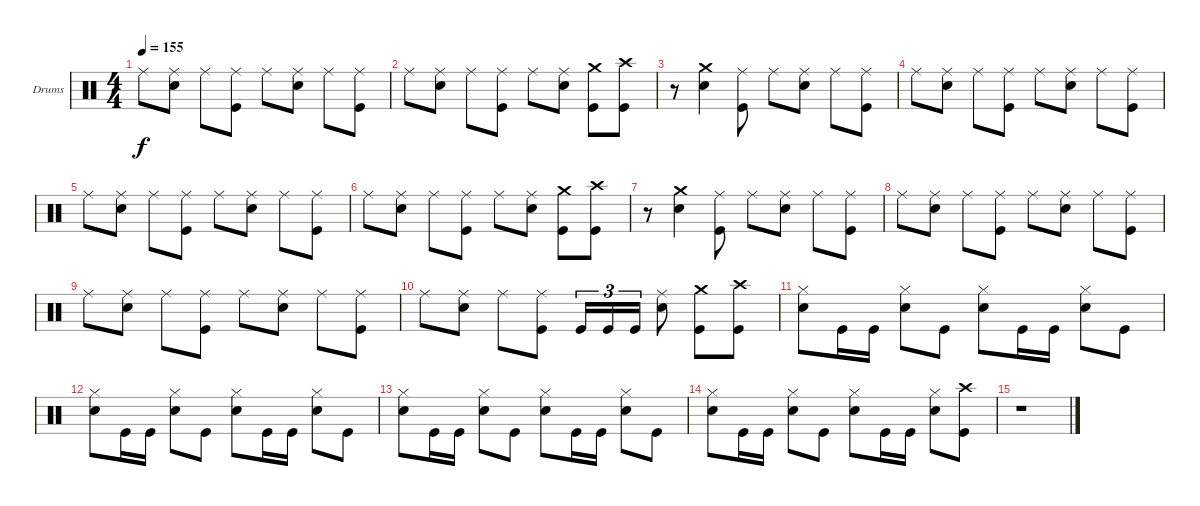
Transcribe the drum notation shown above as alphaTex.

\bracketExtendMode groupsimilarinstruments
\firstSystemTrackNameOrientation horizontal
\otherSystemsTrackNameOrientation horizontal
\track ("Drumkit" "Drums") {instrument percussion}
\staff {score}
\articulation defaults
\ts (4 4)
\tempo 155
\clef neutral
\ks c "Ride (middle)".8{dy f}
("Ride (middle)" "Snare (hit) 2").8 "Ride (middle)".8 ("Ride (middle)" "Kick (hit)").8 "Ride (middle)".8 ("Ride (middle)" "Snare (hit) 2").8 "Ride (middle)".8 ("Ride (middle)" "Kick (hit)").8 |
"Ride (middle)".8 ("Ride (middle)" "Snare (hit) 2").8 "Ride (middle)".8 ("Ride (middle)" "Kick (hit)").8 "Ride (middle)".8 ("Ride (middle)" "Snare (hit) 2").8 ("Crash medium (hit)" "Kick (hit)").8 ("Crash high (hit)" "Kick (hit)").8 |
r.8 ("Crash medium (hit)" "Snare (hit) 2").4 ("Ride (middle)" "Kick (hit)").8 "Ride (middle)".8 ("Ride (middle)" "Snare (hit) 2").8 "Ride (middle)".8 ("Ride (middle)" "Kick (hit)").8 |
"Ride (middle)".8 ("Ride (middle)" "Snare (hit) 2").8 "Ride (middle)".8 ("Ride (middle)" "Kick (hit)").8 "Ride (middle)".8 ("Ride (middle)" "Snare (hit) 2").8 "Ride (middle)".8 ("Ride (middle)" "Kick (hit)").8 |
"Ride (middle)".8 ("Ride (middle)" "Snare (hit) 2").8 "Ride (middle)".8 ("Ride (middle)" "Kick (hit)").8 "Ride (middle)".8 ("Ride (middle)" "Snare (hit) 2").8 "Ride (middle)".8 ("Ride (middle)" "Kick (hit)").8 |
"Ride (middle)".8 ("Ride (middle)" "Snare (hit) 2").8 "Ride (middle)".8 ("Ride (middle)" "Kick (hit)").8 "Ride (middle)".8 ("Ride (middle)" "Snare (hit) 2").8 ("Crash medium (hit)" "Kick (hit)").8 ("Crash high (hit)" "Kick (hit)").8 |
r.8 ("Crash medium (hit)" "Snare (hit) 2").4 ("Ride (middle)" "Kick (hit)").8 "Ride (middle)".8 ("Ride (middle)" "Snare (hit) 2").8 "Ride (middle)".8 ("Ride (middle)" "Kick (hit)").8 |
"Ride (middle)".8 ("Ride (middle)" "Snare (hit) 2").8 "Ride (middle)".8 ("Ride (middle)" "Kick (hit)").8 "Ride (middle)".8 ("Ride (middle)" "Snare (hit) 2").8 "Ride (middle)".8 ("Ride (middle)" "Kick (hit)").8 |
"Ride (middle)".8 ("Ride (middle)" "Snare (hit) 2").8 "Ride (middle)".8 ("Ride (middle)" "Kick (hit)").8 "Ride (middle)".8 ("Ride (middle)" "Snare (hit) 2").8 "Ride (middle)".8 ("Ride (middle)" "Kick (hit)").8 |
"Ride (middle)".8 ("Ride (middle)" "Snare (hit) 2").8 "Ride (middle)".8 ("Ride (middle)" "Kick (hit)").8 "Kick (hit)".16{tu (3 2)} "Kick (hit)".16{tu (3 2)} "Kick (hit)".16{tu (3 2)} ("Ride (middle)" "Snare (hit) 2").8 ("Crash medium (hit)" "Kick (hit)").8 ("Crash high (hit)" "Kick (hit)").8 |
("Hi-Hat (closed)" "Snare (hit) 2").8 "Kick (hit)".16 "Kick (hit)".16 ("Hi-Hat (closed)" "Snare (hit) 2").8 "Kick (hit)".8 ("Hi-Hat (closed)" "Snare (hit) 2").8 "Kick (hit)".16 "Kick (hit)".16 ("Hi-Hat (closed)" "Snare (hit) 2").8 "Kick (hit)".8 |
("Hi-Hat (closed)" "Snare (hit) 2").8 "Kick (hit)".16 "Kick (hit)".16 ("Hi-Hat (closed)" "Snare (hit) 2").8 "Kick (hit)".8 ("Hi-Hat (closed)" "Snare (hit) 2").8 "Kick (hit)".16 "Kick (hit)".16 ("Hi-Hat (closed)" "Snare (hit) 2").8 "Kick (hit)".8 |
("Hi-Hat (closed)" "Snare (hit) 2").8 "Kick (hit)".16 "Kick (hit)".16 ("Hi-Hat (closed)" "Snare (hit) 2").8 "Kick (hit)".8 ("Hi-Hat (closed)" "Snare (hit) 2").8 "Kick (hit)".16 "Kick (hit)".16 ("Hi-Hat (closed)" "Snare (hit) 2").8 "Kick (hit)".8 |
("Hi-Hat (closed)" "Snare (hit) 2").8 "Kick (hit)".16 "Kick (hit)".16 ("Hi-Hat (closed)" "Snare (hit) 2").8 "Kick (hit)".8 ("Hi-Hat (closed)" "Snare (hit) 2").8 "Kick (hit)".16 "Kick (hit)".16 ("Hi-Hat (closed)" "Snare (hit) 2").8 ("Crash high (hit)" "Kick (hit)").8 |
r.1
